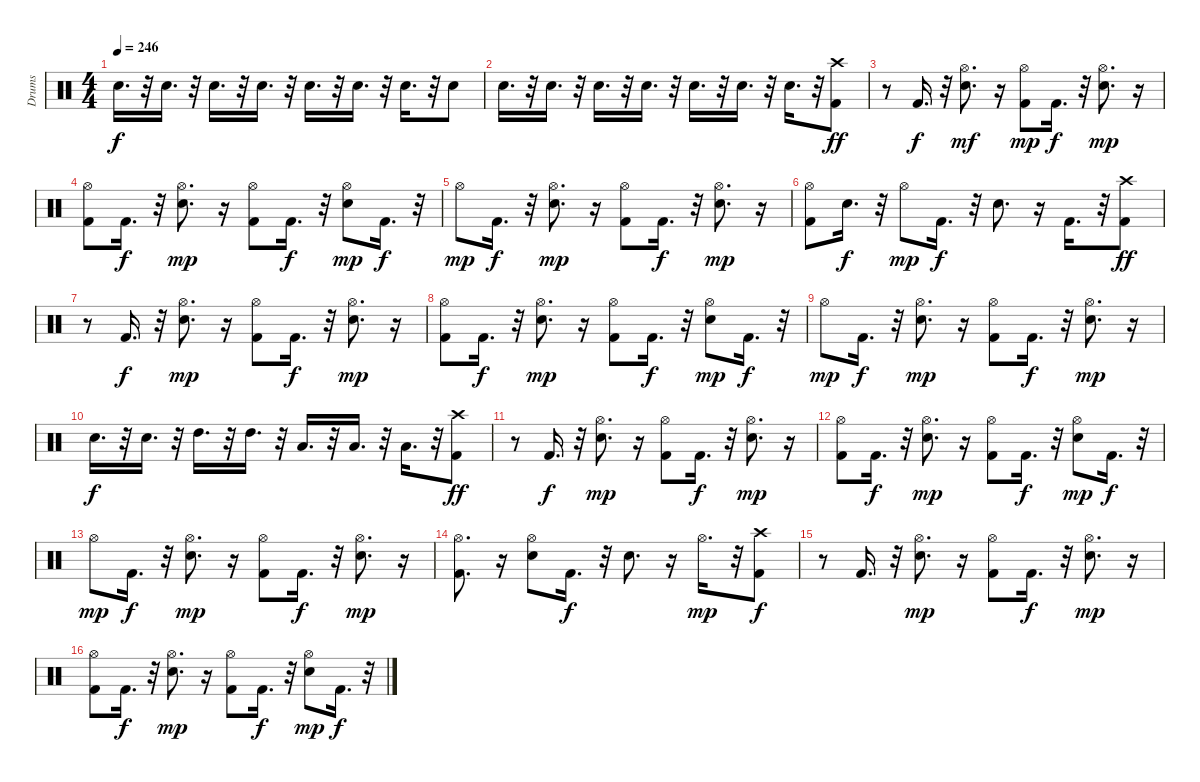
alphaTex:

\track ("Drums" "Drums") {instrument percussion}
\staff {score}
\articulation defaults
\ts (4 4)
\tempo 246
\clef neutral
\ks c "Electric Snare (hit)".16{d dy f}
r.32 "Electric Snare (hit)".16{d} r.32 "Electric Snare (hit)".16{d} r.32 "Electric Snare (hit)".16{d} r.32 "Electric Snare (hit)".16{d} r.32 "Electric Snare (hit)".16{d} r.32 "Electric Snare (hit)".16{d} r.32 "Electric Snare (hit)".8 |
"Electric Snare (hit)".16{d} r.32 "Electric Snare (hit)".16{d} r.32 "Electric Snare (hit)".16{d} r.32 "Electric Snare (hit)".16{d} r.32 "Electric Snare (hit)".16{d} r.32 "Electric Snare (hit)".16{d} r.32 "Electric Snare (hit)".16{d} r.32 ("Kick (hit) 2" "Crash high (hit)").8{dy ff} |
r.8 "Kick (hit) 2".16{d dy f} r.32 ("Hi-Hat (open)" "Electric Snare (hit)").8{d dy mf} r.16 ("Kick (hit) 2" "Hi-Hat (open)").8{dy mp} "Kick (hit) 2".16{d dy f} r.32 ("Hi-Hat (open)" "Electric Snare (hit)").8{d dy mp} r.16 |
("Kick (hit) 2" "Hi-Hat (open)").8 "Kick (hit) 2".16{d dy f} r.32 ("Hi-Hat (open)" "Electric Snare (hit)").8{d dy mp} r.16 ("Kick (hit) 2" "Hi-Hat (open)").8 "Kick (hit) 2".16{d dy f} r.32 ("Hi-Hat (open)" "Electric Snare (hit)").8{dy mp} "Kick (hit) 2".16{d dy f} r.32 |
"Hi-Hat (open)".8{dy mp} "Kick (hit) 2".16{d dy f} r.32 ("Hi-Hat (open)" "Electric Snare (hit)").8{d dy mp} r.16 ("Kick (hit) 2" "Hi-Hat (open)").8 "Kick (hit) 2".16{d dy f} r.32 ("Hi-Hat (open)" "Electric Snare (hit)").8{d dy mp} r.16 |
("Kick (hit) 2" "Hi-Hat (open)").8 "Electric Snare (hit)".16{d dy f} r.32 "Hi-Hat (open)".8{dy mp} "Kick (hit) 2".16{d dy f} r.32 "Electric Snare (hit)".8{d} r.16 "Kick (hit) 2".16{d} r.32 ("Kick (hit) 2" "Crash high (hit)").8{dy ff} |
r.8 "Kick (hit) 2".16{d dy f} r.32 ("Hi-Hat (open)" "Electric Snare (hit)").8{d dy mp} r.16 ("Kick (hit) 2" "Hi-Hat (open)").8 "Kick (hit) 2".16{d dy f} r.32 ("Hi-Hat (open)" "Electric Snare (hit)").8{d dy mp} r.16 |
("Kick (hit) 2" "Hi-Hat (open)").8 "Kick (hit) 2".16{d dy f} r.32 ("Hi-Hat (open)" "Electric Snare (hit)").8{d dy mp} r.16 ("Kick (hit) 2" "Hi-Hat (open)").8 "Kick (hit) 2".16{d dy f} r.32 ("Hi-Hat (open)" "Electric Snare (hit)").8{dy mp} "Kick (hit) 2".16{d dy f} r.32 |
"Hi-Hat (open)".8{dy mp} "Kick (hit) 2".16{d dy f} r.32 ("Hi-Hat (open)" "Electric Snare (hit)").8{d dy mp} r.16 ("Kick (hit) 2" "Hi-Hat (open)").8 "Kick (hit) 2".16{d dy f} r.32 ("Hi-Hat (open)" "Electric Snare (hit)").8{d dy mp} r.16 |
"Electric Snare (hit)".16{d dy f} r.32 "Electric Snare (hit)".16{d} r.32 "High Tom (hit)".16{d} r.32 "High Tom (hit)".16{d} r.32 "Low Tom (hit)".16{d} r.32 "Low Tom (hit)".16{d} r.32 "Low Tom (hit)".16{d} r.32 ("Kick (hit) 2" "Crash high (hit)").8{dy ff} |
r.8 "Kick (hit) 2".16{d dy f} r.32 ("Hi-Hat (open)" "Electric Snare (hit)").8{d dy mp} r.16 ("Kick (hit) 2" "Hi-Hat (open)").8 "Kick (hit) 2".16{d dy f} r.32 ("Hi-Hat (open)" "Electric Snare (hit)").8{d dy mp} r.16 |
("Kick (hit) 2" "Hi-Hat (open)").8 "Kick (hit) 2".16{d dy f} r.32 ("Hi-Hat (open)" "Electric Snare (hit)").8{d dy mp} r.16 ("Kick (hit) 2" "Hi-Hat (open)").8 "Kick (hit) 2".16{d dy f} r.32 ("Hi-Hat (open)" "Electric Snare (hit)").8{dy mp} "Kick (hit) 2".16{d dy f} r.32 |
"Hi-Hat (open)".8{dy mp} "Kick (hit) 2".16{d dy f} r.32 ("Hi-Hat (open)" "Electric Snare (hit)").8{d dy mp} r.16 ("Kick (hit) 2" "Hi-Hat (open)").8 "Kick (hit) 2".16{d dy f} r.32 ("Hi-Hat (open)" "Electric Snare (hit)").8{d dy mp} r.16 |
("Kick (hit) 2" "Hi-Hat (open)").8{d} r.16 ("Hi-Hat (open)" "Electric Snare (hit)").8 "Kick (hit) 2".16{d dy f} r.32 "Electric Snare (hit)".8{d} r.16 "Hi-Hat (open)".16{d dy mp} r.32 ("Kick (hit) 2" "Crash high (hit)").8{dy f} |
r.8 "Kick (hit) 2".16{d} r.32 ("Hi-Hat (open)" "Electric Snare (hit)").8{d dy mp} r.16 ("Kick (hit) 2" "Hi-Hat (open)").8 "Kick (hit) 2".16{d dy f} r.32 ("Hi-Hat (open)" "Electric Snare (hit)").8{d dy mp} r.16 |
("Kick (hit) 2" "Hi-Hat (open)").8 "Kick (hit) 2".16{d dy f} r.32 ("Hi-Hat (open)" "Electric Snare (hit)").8{d dy mp} r.16 ("Kick (hit) 2" "Hi-Hat (open)").8 "Kick (hit) 2".16{d dy f} r.32 ("Hi-Hat (open)" "Electric Snare (hit)").8{dy mp} "Kick (hit) 2".16{d dy f} r.32
